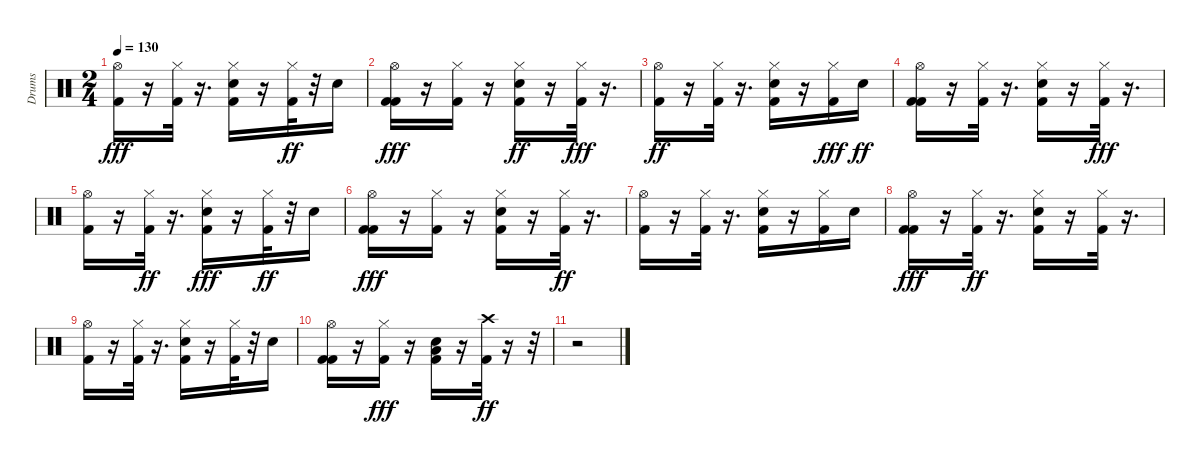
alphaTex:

\track ("Drums" "Drums") {solo instrument percussion}
\staff {score}
\articulation defaults
\ts (2 4)
\tempo 130
\clef neutral
\ks c
("Kick (hit) 2" "Hi-Hat (open)").16{dy fff} r.16 ("Kick (hit) 2" "Hi-Hat (closed)").32 r.16{d} ("Kick (hit) 2" "Snare (hit) 2" "Hi-Hat (closed)").16 r.16 ("Hi-Hat (closed)" "Kick (hit) 2").32{dy ff} r.32 "Snare (hit) 2".16 |
("Kick (hit) 2" "Kick (hit) 2" "Hi-Hat (open)").16{dy fff} r.16 ("Kick (hit) 2" "Hi-Hat (closed)").16 r.16 ("Hi-Hat (closed)" "Kick (hit) 2" "Snare (hit) 2").16{dy ff} r.16 ("Kick (hit) 2" "Hi-Hat (closed)").32{dy fff} r.16{d} |
("Hi-Hat (open)" "Kick (hit) 2").16{dy ff} r.16 ("Hi-Hat (closed)" "Kick (hit) 2").32 r.16{d} ("Hi-Hat (closed)" "Snare (hit) 2" "Kick (hit) 2").16 r.16 ("Kick (hit) 2" "Hi-Hat (closed)").16{dy fff} "Snare (hit) 2".16{dy ff} |
("Kick (hit) 2" "Hi-Hat (open)" "Kick (hit) 2").16 r.16 ("Hi-Hat (closed)" "Kick (hit) 2").32 r.16{d} ("Kick (hit) 2" "Hi-Hat (closed)" "Snare (hit) 2").16 r.16 ("Kick (hit) 2" "Hi-Hat (closed)").32{dy fff} r.16{d} |
("Kick (hit) 2" "Hi-Hat (open)").16 r.16 ("Hi-Hat (closed)" "Kick (hit) 2").32{dy ff} r.16{d} ("Snare (hit) 2" "Kick (hit) 2" "Hi-Hat (closed)").16{dy fff} r.16 ("Hi-Hat (closed)" "Kick (hit) 2").32{dy ff} r.32 "Snare (hit) 2".16 |
("Kick (hit) 2" "Kick (hit) 2" "Hi-Hat (open)").16{dy fff} r.16 ("Kick (hit) 2" "Hi-Hat (closed)").16 r.16 ("Snare (hit) 2" "Kick (hit) 2" "Hi-Hat (closed)").16 r.16 ("Hi-Hat (closed)" "Kick (hit) 2").32{dy ff} r.16{d} |
("Hi-Hat (open)" "Kick (hit) 2").16 r.16 ("Hi-Hat (closed)" "Kick (hit) 2").32 r.16{d} ("Snare (hit) 2" "Hi-Hat (closed)" "Kick (hit) 2").16 r.16 ("Hi-Hat (closed)" "Kick (hit) 2").16 "Snare (hit) 2".16 |
("Kick (hit) 2" "Kick (hit) 2" "Hi-Hat (open)").16{dy fff} r.16 ("Hi-Hat (closed)" "Kick (hit) 2").32{dy ff} r.16{d} ("Snare (hit) 2" "Hi-Hat (closed)" "Kick (hit) 2").16 r.16 ("Hi-Hat (closed)" "Kick (hit) 2").32 r.16{d} |
("Hi-Hat (open)" "Kick (hit) 2").16 r.16 ("Hi-Hat (closed)" "Kick (hit) 2").32 r.16{d} ("Snare (hit) 2" "Hi-Hat (closed)" "Kick (hit) 2").16 r.16 ("Hi-Hat (closed)" "Kick (hit) 2").32 r.32 "Snare (hit) 2".16 |
("Kick (hit) 2" "Hi-Hat (open)" "Kick (hit) 2").16 r.16 ("Kick (hit) 2" "Hi-Hat (closed)").16{dy fff} r.16 ("Snare (hit) 2" "Kick (hit) 2" "Low Floor Tom (hit)").16 r.16 ("Crash high (hit)" "Kick (hit) 2").32{dy ff} r.16 r.32 |
r.2
